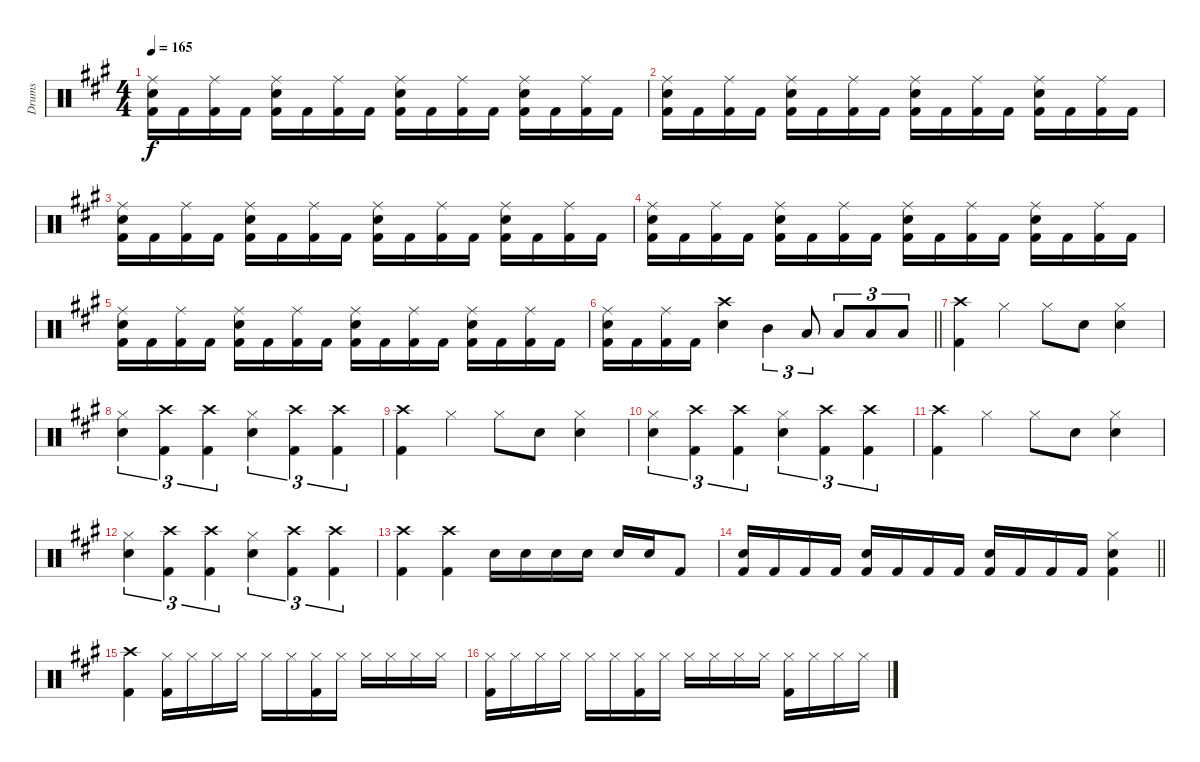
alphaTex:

\track ("Drums" "Drums") {instrument percussion}
\staff {score}
\articulation defaults
\ts (4 4)
\tempo 165
\clef neutral
\ks a
("Ride (middle)" "Snare (hit) 2" "Kick (hit) 2").16{dy f} "Kick (hit) 2".16 ("Ride (middle)" "Kick (hit) 2").16 "Kick (hit) 2".16 ("Ride (middle)" "Snare (hit) 2" "Kick (hit) 2").16 "Kick (hit) 2".16 ("Ride (middle)" "Kick (hit) 2").16 "Kick (hit) 2".16 ("Ride (middle)" "Snare (hit) 2" "Kick (hit) 2").16 "Kick (hit) 2".16 ("Ride (middle)" "Kick (hit) 2").16 "Kick (hit) 2".16 ("Ride (middle)" "Snare (hit) 2" "Kick (hit) 2").16 "Kick (hit) 2".16 ("Ride (middle)" "Kick (hit) 2").16 "Kick (hit) 2".16 |
("Ride (middle)" "Snare (hit) 2" "Kick (hit) 2").16 "Kick (hit) 2".16 ("Ride (middle)" "Kick (hit) 2").16 "Kick (hit) 2".16 ("Ride (middle)" "Snare (hit) 2" "Kick (hit) 2").16 "Kick (hit) 2".16 ("Ride (middle)" "Kick (hit) 2").16 "Kick (hit) 2".16 ("Ride (middle)" "Snare (hit) 2" "Kick (hit) 2").16 "Kick (hit) 2".16 ("Ride (middle)" "Kick (hit) 2").16 "Kick (hit) 2".16 ("Ride (middle)" "Snare (hit) 2" "Kick (hit) 2").16 "Kick (hit) 2".16 ("Ride (middle)" "Kick (hit) 2").16 "Kick (hit) 2".16 |
("Ride (middle)" "Snare (hit) 2" "Kick (hit) 2").16 "Kick (hit) 2".16 ("Ride (middle)" "Kick (hit) 2").16 "Kick (hit) 2".16 ("Ride (middle)" "Snare (hit) 2" "Kick (hit) 2").16 "Kick (hit) 2".16 ("Ride (middle)" "Kick (hit) 2").16 "Kick (hit) 2".16 ("Ride (middle)" "Snare (hit) 2" "Kick (hit) 2").16 "Kick (hit) 2".16 ("Ride (middle)" "Kick (hit) 2").16 "Kick (hit) 2".16 ("Ride (middle)" "Snare (hit) 2" "Kick (hit) 2").16 "Kick (hit) 2".16 ("Ride (middle)" "Kick (hit) 2").16 "Kick (hit) 2".16 |
("Ride (middle)" "Snare (hit) 2" "Kick (hit) 2").16 "Kick (hit) 2".16 ("Ride (middle)" "Kick (hit) 2").16 "Kick (hit) 2".16 ("Ride (middle)" "Snare (hit) 2" "Kick (hit) 2").16 "Kick (hit) 2".16 ("Ride (middle)" "Kick (hit) 2").16 "Kick (hit) 2".16 ("Ride (middle)" "Snare (hit) 2" "Kick (hit) 2").16 "Kick (hit) 2".16 ("Ride (middle)" "Kick (hit) 2").16 "Kick (hit) 2".16 ("Ride (middle)" "Snare (hit) 2" "Kick (hit) 2").16 "Kick (hit) 2".16 ("Ride (middle)" "Kick (hit) 2").16 "Kick (hit) 2".16 |
("Ride (middle)" "Snare (hit) 2" "Kick (hit) 2").16 "Kick (hit) 2".16 ("Ride (middle)" "Kick (hit) 2").16 "Kick (hit) 2".16 ("Ride (middle)" "Snare (hit) 2" "Kick (hit) 2").16 "Kick (hit) 2".16 ("Ride (middle)" "Kick (hit) 2").16 "Kick (hit) 2".16 ("Ride (middle)" "Snare (hit) 2" "Kick (hit) 2").16 "Kick (hit) 2".16 ("Ride (middle)" "Kick (hit) 2").16 "Kick (hit) 2".16 ("Ride (middle)" "Snare (hit) 2" "Kick (hit) 2").16 "Kick (hit) 2".16 ("Ride (middle)" "Kick (hit) 2").16 "Kick (hit) 2".16 |
\barLineRight lightlight
("Ride (middle)" "Snare (hit) 2" "Kick (hit) 2").16 "Kick (hit) 2".16 ("Ride (middle)" "Kick (hit) 2").16 "Kick (hit) 2".16 ("Crash high (hit)" "Snare (hit) 2").4 "Mid Tom (hit)".4{tu (3 2)} "Low Tom (hit)".8{tu (3 2)} "Low Tom (hit)".8{tu (3 2)} "Low Floor Tom (hit)".8{tu (3 2)} "Low Floor Tom (hit)".8{tu (3 2)} |
("Crash high (hit)" "Kick (hit) 2").4 "Hi-Hat (closed)".4 "Hi-Hat (closed)".8 "Snare (hit) 2".8 ("Hi-Hat (closed)" "Snare (hit) 2").4 |
("Hi-Hat (closed)" "Snare (hit) 2").4{tu (3 2)} ("Crash high (hit)" "Kick (hit) 2").4{tu (3 2)} ("Crash high (hit)" "Kick (hit) 2").4{tu (3 2)} ("Hi-Hat (closed)" "Snare (hit) 2").4{tu (3 2)} ("Crash high (hit)" "Kick (hit) 2").4{tu (3 2)} ("Crash high (hit)" "Kick (hit) 2").4{tu (3 2)} |
("Crash high (hit)" "Kick (hit) 2").4 "Hi-Hat (closed)".4 "Hi-Hat (closed)".8 "Snare (hit) 2".8 ("Hi-Hat (closed)" "Snare (hit) 2").4 |
("Hi-Hat (closed)" "Snare (hit) 2").4{tu (3 2)} ("Crash high (hit)" "Kick (hit) 2").4{tu (3 2)} ("Crash high (hit)" "Kick (hit) 2").4{tu (3 2)} ("Hi-Hat (closed)" "Snare (hit) 2").4{tu (3 2)} ("Crash high (hit)" "Kick (hit) 2").4{tu (3 2)} ("Crash high (hit)" "Kick (hit) 2").4{tu (3 2)} |
("Crash high (hit)" "Kick (hit) 2").4 "Hi-Hat (closed)".4 "Hi-Hat (closed)".8 "Snare (hit) 2".8 ("Hi-Hat (closed)" "Snare (hit) 2").4 |
("Hi-Hat (closed)" "Snare (hit) 2").4{tu (3 2)} ("Crash high (hit)" "Kick (hit) 2").4{tu (3 2)} ("Crash high (hit)" "Kick (hit) 2").4{tu (3 2)} ("Hi-Hat (closed)" "Snare (hit) 2").4{tu (3 2)} ("Crash high (hit)" "Kick (hit) 2").4{tu (3 2)} ("Crash high (hit)" "Kick (hit) 2").4{tu (3 2)} |
("Crash high (hit)" "Kick (hit) 2").4 ("Crash high (hit)" "Kick (hit) 2").4 "Snare (hit) 2".16 "Snare (hit) 2".16 "Snare (hit) 2".16 "Snare (hit) 2".16 "Snare (hit) 2".16 "Snare (hit) 2".16 "Kick (hit) 2".8 |
\barLineRight lightlight
("Snare (hit) 2" "Kick (hit) 2").16 "Kick (hit) 2".16 "Kick (hit) 2".16 "Kick (hit) 2".16 ("Snare (hit) 2" "Kick (hit) 2").16 "Kick (hit) 2".16 "Kick (hit) 2".16 "Kick (hit) 2".16 ("Snare (hit) 2" "Kick (hit) 2").16 "Kick (hit) 2".16 "Kick (hit) 2".16 "Kick (hit) 2".16 ("Hi-Hat (closed)" "Snare (hit) 2" "Kick (hit) 2").4 |
("Crash high (hit)" "Kick (hit) 2").4 ("Hi-Hat (closed)" "Kick (hit) 2").16 "Hi-Hat (closed)".16 "Hi-Hat (closed)".16 "Hi-Hat (closed)".16 "Hi-Hat (closed)".16 "Hi-Hat (closed)".16 ("Hi-Hat (closed)" "Kick (hit) 2").16 "Hi-Hat (closed)".16 "Hi-Hat (closed)".16 "Hi-Hat (closed)".16 "Hi-Hat (closed)".16 "Hi-Hat (closed)".16 |
("Hi-Hat (closed)" "Kick (hit) 2").16 "Hi-Hat (closed)".16 "Hi-Hat (closed)".16 "Hi-Hat (closed)".16 "Hi-Hat (closed)".16 "Hi-Hat (closed)".16 ("Hi-Hat (closed)" "Kick (hit) 2").16 "Hi-Hat (closed)".16 "Hi-Hat (closed)".16 "Hi-Hat (closed)".16 "Hi-Hat (closed)".16 "Hi-Hat (closed)".16 ("Hi-Hat (closed)" "Kick (hit) 2").16 "Hi-Hat (closed)".16 "Hi-Hat (closed)".16 "Hi-Hat (closed)".16
